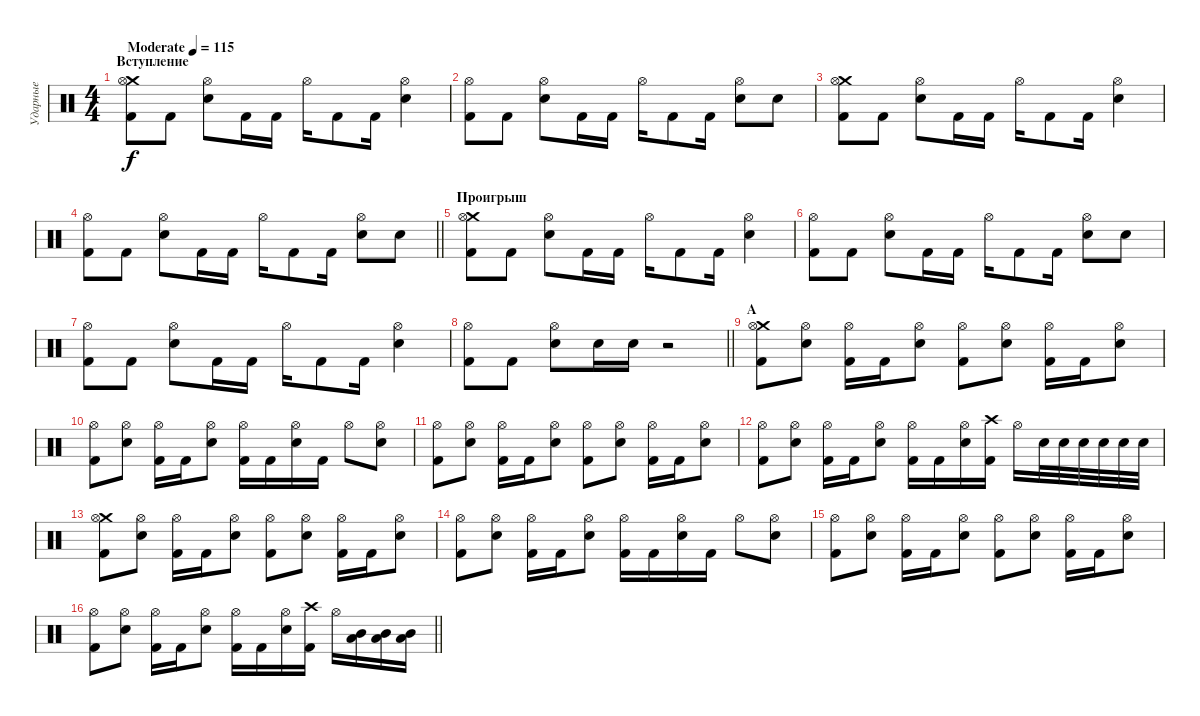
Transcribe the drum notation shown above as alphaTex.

\track ("Ударные" "Ударные") {instrument percussion}
\staff {score}
\articulation defaults
\ts (4 4)
\section ("" "Вступление")
\tempo (115 "Moderate")
\clef neutral
\ks aminor
("Crash medium (hit)" "Kick (hit) 2" "Hi-Hat (open)").8{dy f} "Kick (hit) 2".8 ("Electric Snare (hit)" "Hi-Hat (open)").8 "Kick (hit) 2".16 "Kick (hit) 2".16 "Hi-Hat (open)".16 "Kick (hit) 2".8 "Kick (hit) 2".16 ("Electric Snare (hit)" "Hi-Hat (open)").4 |
("Kick (hit) 2" "Hi-Hat (open)").8 "Kick (hit) 2".8 ("Electric Snare (hit)" "Hi-Hat (open)").8 "Kick (hit) 2".16 "Kick (hit) 2".16 "Hi-Hat (open)".16 "Kick (hit) 2".8 "Kick (hit) 2".16 ("Electric Snare (hit)" "Hi-Hat (open)").8 "Electric Snare (hit)".8 |
("Crash medium (hit)" "Kick (hit) 2" "Hi-Hat (open)").8 "Kick (hit) 2".8 ("Electric Snare (hit)" "Hi-Hat (open)").8 "Kick (hit) 2".16 "Kick (hit) 2".16 "Hi-Hat (open)".16 "Kick (hit) 2".8 "Kick (hit) 2".16 ("Electric Snare (hit)" "Hi-Hat (open)").4 |
\barLineRight lightlight
("Kick (hit) 2" "Hi-Hat (open)").8 "Kick (hit) 2".8 ("Electric Snare (hit)" "Hi-Hat (open)").8 "Kick (hit) 2".16 "Kick (hit) 2".16 "Hi-Hat (open)".16 "Kick (hit) 2".8 "Kick (hit) 2".16 ("Electric Snare (hit)" "Hi-Hat (open)").8 "Electric Snare (hit)".8 |
\section ("" "Проигрыш")
("Crash medium (hit)" "Kick (hit) 2" "Hi-Hat (open)").8 "Kick (hit) 2".8 ("Electric Snare (hit)" "Hi-Hat (open)").8 "Kick (hit) 2".16 "Kick (hit) 2".16 "Hi-Hat (open)".16 "Kick (hit) 2".8 "Kick (hit) 2".16 ("Electric Snare (hit)" "Hi-Hat (open)").4 |
("Kick (hit) 2" "Hi-Hat (open)").8 "Kick (hit) 2".8 ("Electric Snare (hit)" "Hi-Hat (open)").8 "Kick (hit) 2".16 "Kick (hit) 2".16 "Hi-Hat (open)".16 "Kick (hit) 2".8 "Kick (hit) 2".16 ("Electric Snare (hit)" "Hi-Hat (open)").8 "Electric Snare (hit)".8 |
("Kick (hit) 2" "Hi-Hat (open)").8 "Kick (hit) 2".8 ("Electric Snare (hit)" "Hi-Hat (open)").8 "Kick (hit) 2".16 "Kick (hit) 2".16 "Hi-Hat (open)".16 "Kick (hit) 2".8 "Kick (hit) 2".16 ("Electric Snare (hit)" "Hi-Hat (open)").4 |
\barLineRight lightlight
("Kick (hit) 2" "Hi-Hat (open)").8 "Kick (hit) 2".8 ("Electric Snare (hit)" "Hi-Hat (open)").8 "Electric Snare (hit)".16 "Electric Snare (hit)".16 r.2 |
\section ("" "A")
("Crash medium (hit)" "Kick (hit) 2" "Hi-Hat (open)").8 ("Electric Snare (hit)" "Hi-Hat (open)").8 ("Kick (hit) 2" "Hi-Hat (open)").16 "Kick (hit) 2".16 ("Electric Snare (hit)" "Hi-Hat (open)").8 ("Kick (hit) 2" "Hi-Hat (open)").8 ("Electric Snare (hit)" "Hi-Hat (open)").8 ("Kick (hit) 2" "Hi-Hat (open)").16 "Kick (hit) 2".16 ("Electric Snare (hit)" "Hi-Hat (open)").8 |
("Kick (hit) 2" "Hi-Hat (open)").8 ("Electric Snare (hit)" "Hi-Hat (open)").8 ("Kick (hit) 2" "Hi-Hat (open)").16 "Kick (hit) 2".16 ("Electric Snare (hit)" "Hi-Hat (open)").8 ("Kick (hit) 2" "Hi-Hat (open)").16 "Kick (hit) 2".16 ("Electric Snare (hit)" "Hi-Hat (open)").16 "Kick (hit) 2".16 "Hi-Hat (open)".8 ("Electric Snare (hit)" "Hi-Hat (open)").8 |
("Kick (hit) 2" "Hi-Hat (open)").8 ("Electric Snare (hit)" "Hi-Hat (open)").8 ("Kick (hit) 2" "Hi-Hat (open)").16 "Kick (hit) 2".16 ("Electric Snare (hit)" "Hi-Hat (open)").8 ("Kick (hit) 2" "Hi-Hat (open)").8 ("Electric Snare (hit)" "Hi-Hat (open)").8 ("Kick (hit) 2" "Hi-Hat (open)").16 "Kick (hit) 2".16 ("Electric Snare (hit)" "Hi-Hat (open)").8 |
("Kick (hit) 2" "Hi-Hat (open)").8 ("Electric Snare (hit)" "Hi-Hat (open)").8 ("Kick (hit) 2" "Hi-Hat (open)").16 "Kick (hit) 2".16 ("Electric Snare (hit)" "Hi-Hat (open)").8 ("Kick (hit) 2" "Hi-Hat (open)").16 "Kick (hit) 2".16 ("Electric Snare (hit)" "Hi-Hat (open)").16 ("Crash high (hit)" "Kick (hit) 2").16 "Hi-Hat (open)".16 "Electric Snare (hit)".32 "Electric Snare (hit)".32 "Electric Snare (hit)".32 "Electric Snare (hit)".32 "Electric Snare (hit)".32 "Electric Snare (hit)".32 |
("Crash medium (hit)" "Kick (hit) 2" "Hi-Hat (open)").8 ("Electric Snare (hit)" "Hi-Hat (open)").8 ("Kick (hit) 2" "Hi-Hat (open)").16 "Kick (hit) 2".16 ("Electric Snare (hit)" "Hi-Hat (open)").8 ("Kick (hit) 2" "Hi-Hat (open)").8 ("Electric Snare (hit)" "Hi-Hat (open)").8 ("Kick (hit) 2" "Hi-Hat (open)").16 "Kick (hit) 2".16 ("Electric Snare (hit)" "Hi-Hat (open)").8 |
("Kick (hit) 2" "Hi-Hat (open)").8 ("Electric Snare (hit)" "Hi-Hat (open)").8 ("Kick (hit) 2" "Hi-Hat (open)").16 "Kick (hit) 2".16 ("Electric Snare (hit)" "Hi-Hat (open)").8 ("Kick (hit) 2" "Hi-Hat (open)").16 "Kick (hit) 2".16 ("Electric Snare (hit)" "Hi-Hat (open)").16 "Kick (hit) 2".16 "Hi-Hat (open)".8 ("Electric Snare (hit)" "Hi-Hat (open)").8 |
("Kick (hit) 2" "Hi-Hat (open)").8 ("Electric Snare (hit)" "Hi-Hat (open)").8 ("Kick (hit) 2" "Hi-Hat (open)").16 "Kick (hit) 2".16 ("Electric Snare (hit)" "Hi-Hat (open)").8 ("Kick (hit) 2" "Hi-Hat (open)").8 ("Electric Snare (hit)" "Hi-Hat (open)").8 ("Kick (hit) 2" "Hi-Hat (open)").16 "Kick (hit) 2".16 ("Electric Snare (hit)" "Hi-Hat (open)").8 |
\barLineRight lightlight
("Kick (hit) 2" "Hi-Hat (open)").8 ("Electric Snare (hit)" "Hi-Hat (open)").8 ("Kick (hit) 2" "Hi-Hat (open)").16 "Kick (hit) 2".16 ("Electric Snare (hit)" "Hi-Hat (open)").8 ("Kick (hit) 2" "Hi-Hat (open)").16 "Kick (hit) 2".16 ("Electric Snare (hit)" "Hi-Hat (open)").16 ("Crash high (hit)" "Kick (hit) 2").16 "Hi-Hat (open)".16 ("Low Floor Tom (hit)" "Mid Tom (hit)").16 ("Low Floor Tom (hit)" "Mid Tom (hit)").16 ("Low Floor Tom (hit)" "Mid Tom (hit)").16
